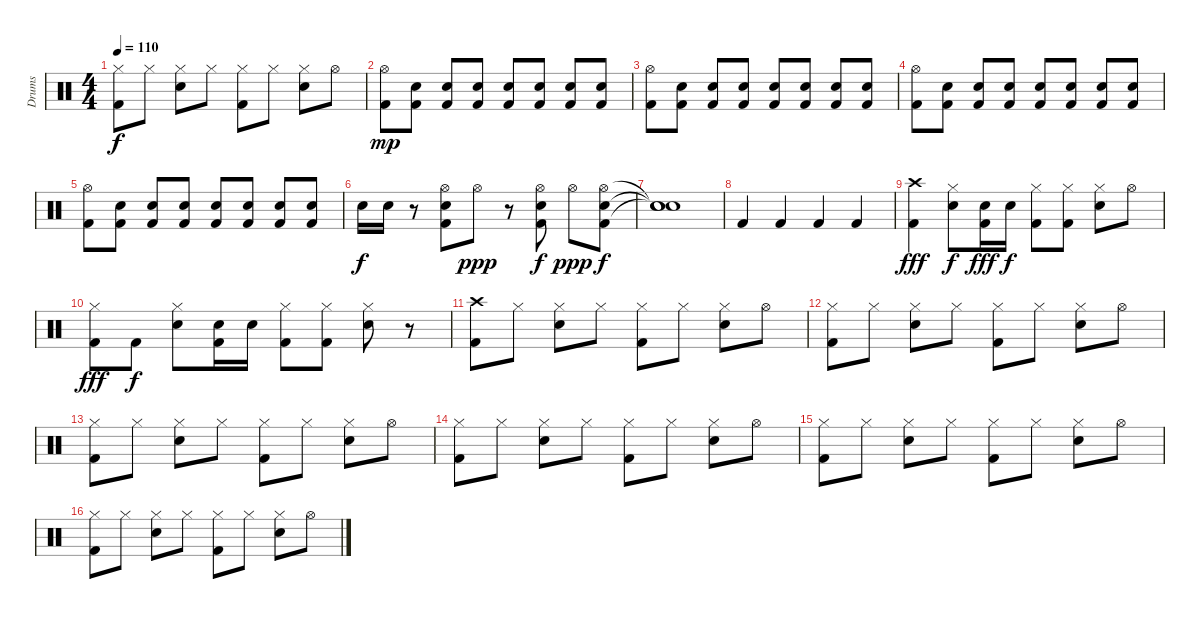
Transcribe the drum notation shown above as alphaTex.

\track ("Drums" "Drums") {instrument percussion}
\staff {score}
\articulation defaults
\ts (4 4)
\tempo 110
\clef neutral
\ks c
("Hi-Hat (closed)" "Kick (hit) 2").8{dy f} "Hi-Hat (closed)".8 ("Hi-Hat (closed)" "Snare (hit) 2").8 "Hi-Hat (closed)".8 ("Hi-Hat (closed)" "Kick (hit) 2").8 "Hi-Hat (closed)".8 ("Hi-Hat (closed)" "Snare (hit) 2").8 "Hi-Hat (open)".8 |
("Kick (hit) 2" "Hi-Hat (open)").8{dy mp} ("Kick (hit) 2" "Snare (hit) 2").8 ("Kick (hit) 2" "Snare (hit) 2").8 ("Kick (hit) 2" "Snare (hit) 2").8 ("Kick (hit) 2" "Snare (hit) 2").8 ("Kick (hit) 2" "Snare (hit) 2").8 ("Kick (hit) 2" "Snare (hit) 2").8 ("Kick (hit) 2" "Snare (hit) 2").8 |
("Hi-Hat (open)" "Kick (hit) 2").8 ("Kick (hit) 2" "Snare (hit) 2").8 ("Kick (hit) 2" "Snare (hit) 2").8 ("Kick (hit) 2" "Snare (hit) 2").8 ("Kick (hit) 2" "Snare (hit) 2").8 ("Kick (hit) 2" "Snare (hit) 2").8 ("Kick (hit) 2" "Snare (hit) 2").8 ("Kick (hit) 2" "Snare (hit) 2").8 |
("Hi-Hat (open)" "Kick (hit) 2").8 ("Kick (hit) 2" "Snare (hit) 2").8 ("Kick (hit) 2" "Snare (hit) 2").8 ("Kick (hit) 2" "Snare (hit) 2").8 ("Kick (hit) 2" "Snare (hit) 2").8 ("Kick (hit) 2" "Snare (hit) 2").8 ("Kick (hit) 2" "Snare (hit) 2").8 ("Kick (hit) 2" "Snare (hit) 2").8 |
("Hi-Hat (open)" "Kick (hit) 2").8 ("Kick (hit) 2" "Snare (hit) 2").8 ("Kick (hit) 2" "Snare (hit) 2").8 ("Kick (hit) 2" "Snare (hit) 2").8 ("Kick (hit) 2" "Snare (hit) 2").8 ("Kick (hit) 2" "Snare (hit) 2").8 ("Kick (hit) 2" "Snare (hit) 2").8 ("Kick (hit) 2" "Snare (hit) 2").8 |
"Snare (hit) 2".16{dy f} "Snare (hit) 2".16 r.8 ("Hi-Hat (open)" "Kick (hit) 2" "Snare (hit) 2").8 "Hi-Hat (open)".8{dy ppp} r.8 ("Hi-Hat (open)" "Kick (hit) 2" "Snare (hit) 2").8{dy f} "Hi-Hat (open)".8{dy ppp} ("Hi-Hat (open)" "Kick (hit) 2" "Snare (hit) 2").8{dy f} |
("Snare (hit)"{t} "Snare (hit)"{t} "Snare (hit)"{t}).1 |
"Kick (hit) 2".4 "Kick (hit) 2".4 "Kick (hit) 2".4 "Kick (hit) 2".4 |
("Crash high (hit)" "Kick (hit) 2").4{dy fff} ("Hi-Hat (closed)" "Snare (hit) 2").8{dy f} ("Snare (hit) 2" "Kick (hit) 2").16{dy fff} "Snare (hit) 2".16{dy f} ("Hi-Hat (closed)" "Kick (hit) 2").8 ("Hi-Hat (closed)" "Kick (hit) 2").8 ("Hi-Hat (closed)" "Snare (hit) 2").8 "Hi-Hat (open)".8 |
("Hi-Hat (closed)" "Kick (hit) 2").8{dy fff} "Kick (hit) 2".8{dy f} ("Hi-Hat (closed)" "Snare (hit) 2").8 ("Snare (hit) 2" "Kick (hit) 2").16 "Snare (hit) 2".16 ("Hi-Hat (closed)" "Kick (hit) 2").8 ("Hi-Hat (closed)" "Kick (hit) 2").8 ("Hi-Hat (closed)" "Snare (hit) 2").8 r.8 |
("Crash high (hit)" "Kick (hit) 2").8 "Hi-Hat (closed)".8 ("Hi-Hat (closed)" "Snare (hit) 2").8 "Hi-Hat (closed)".8 ("Hi-Hat (closed)" "Kick (hit) 2").8 "Hi-Hat (closed)".8 ("Hi-Hat (closed)" "Snare (hit) 2").8 "Hi-Hat (open)".8 |
("Hi-Hat (closed)" "Kick (hit) 2").8 "Hi-Hat (closed)".8 ("Hi-Hat (closed)" "Snare (hit) 2").8 "Hi-Hat (closed)".8 ("Hi-Hat (closed)" "Kick (hit) 2").8 "Hi-Hat (closed)".8 ("Hi-Hat (closed)" "Snare (hit) 2").8 "Hi-Hat (open)".8 |
("Hi-Hat (closed)" "Kick (hit) 2").8 "Hi-Hat (closed)".8 ("Hi-Hat (closed)" "Snare (hit) 2").8 "Hi-Hat (closed)".8 ("Hi-Hat (closed)" "Kick (hit) 2").8 "Hi-Hat (closed)".8 ("Hi-Hat (closed)" "Snare (hit) 2").8 "Hi-Hat (open)".8 |
("Hi-Hat (closed)" "Kick (hit) 2").8 "Hi-Hat (closed)".8 ("Hi-Hat (closed)" "Snare (hit) 2").8 "Hi-Hat (closed)".8 ("Hi-Hat (closed)" "Kick (hit) 2").8 "Hi-Hat (closed)".8 ("Hi-Hat (closed)" "Snare (hit) 2").8 "Hi-Hat (open)".8 |
("Hi-Hat (closed)" "Kick (hit) 2").8 "Hi-Hat (closed)".8 ("Hi-Hat (closed)" "Snare (hit) 2").8 "Hi-Hat (closed)".8 ("Hi-Hat (closed)" "Kick (hit) 2").8 "Hi-Hat (closed)".8 ("Hi-Hat (closed)" "Snare (hit) 2").8 "Hi-Hat (open)".8 |
("Hi-Hat (closed)" "Kick (hit) 2").8 "Hi-Hat (closed)".8 ("Hi-Hat (closed)" "Snare (hit) 2").8 "Hi-Hat (closed)".8 ("Hi-Hat (closed)" "Kick (hit) 2").8 "Hi-Hat (closed)".8 ("Hi-Hat (closed)" "Snare (hit) 2").8 "Hi-Hat (open)".8
